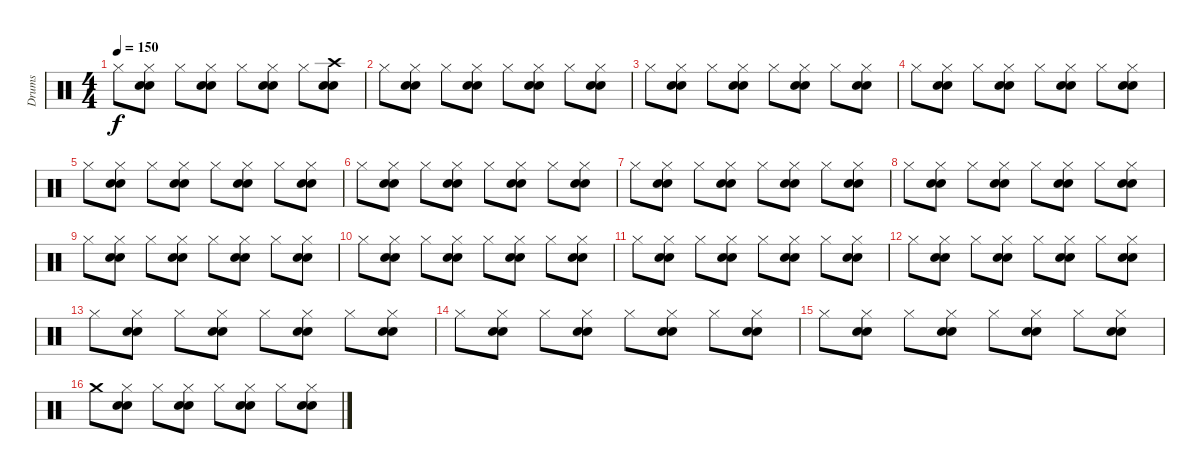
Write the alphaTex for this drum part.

\track ("Drums" "Drums") {instrument percussion}
\staff {score}
\articulation defaults
\ts (4 4)
\tempo 150
\clef neutral
\ks c "Hi-Hat (closed)".8{dy f}
("Hi-Hat (closed)" "Electric Snare (hit)" "Snare (hit) 2").8 "Hi-Hat (closed)".8 ("Hi-Hat (closed)" "Electric Snare (hit)" "Snare (hit) 2").8 "Hi-Hat (closed)".8 ("Hi-Hat (closed)" "Electric Snare (hit)" "Snare (hit) 2").8 "Hi-Hat (closed)".8 ("Crash high (hit)" "Electric Snare (hit)" "Snare (hit) 2").8 |
"Hi-Hat (closed)".8 ("Hi-Hat (closed)" "Electric Snare (hit)" "Snare (hit) 2").8 "Hi-Hat (closed)".8 ("Hi-Hat (closed)" "Electric Snare (hit)" "Snare (hit) 2").8 "Hi-Hat (closed)".8 ("Hi-Hat (closed)" "Electric Snare (hit)" "Snare (hit) 2").8 "Hi-Hat (closed)".8 ("Hi-Hat (closed)" "Electric Snare (hit)" "Snare (hit) 2").8 |
"Hi-Hat (closed)".8 ("Hi-Hat (closed)" "Electric Snare (hit)" "Snare (hit) 2").8 "Hi-Hat (closed)".8 ("Hi-Hat (closed)" "Electric Snare (hit)" "Snare (hit) 2").8 "Hi-Hat (closed)".8 ("Hi-Hat (closed)" "Electric Snare (hit)" "Snare (hit) 2").8 "Hi-Hat (closed)".8 ("Hi-Hat (closed)" "Electric Snare (hit)" "Snare (hit) 2").8 |
"Hi-Hat (closed)".8 ("Hi-Hat (closed)" "Electric Snare (hit)" "Snare (hit) 2").8 "Hi-Hat (closed)".8 ("Hi-Hat (closed)" "Electric Snare (hit)" "Snare (hit) 2").8 "Hi-Hat (closed)".8 ("Hi-Hat (closed)" "Electric Snare (hit)" "Snare (hit) 2").8 "Hi-Hat (closed)".8 ("Hi-Hat (closed)" "Electric Snare (hit)" "Snare (hit) 2").8 |
"Hi-Hat (closed)".8 ("Hi-Hat (closed)" "Electric Snare (hit)" "Snare (hit) 2").8 "Hi-Hat (closed)".8 ("Hi-Hat (closed)" "Electric Snare (hit)" "Snare (hit) 2").8 "Hi-Hat (closed)".8 ("Hi-Hat (closed)" "Electric Snare (hit)" "Snare (hit) 2").8 "Hi-Hat (closed)".8 ("Hi-Hat (closed)" "Electric Snare (hit)" "Snare (hit) 2").8 |
"Hi-Hat (closed)".8 ("Hi-Hat (closed)" "Electric Snare (hit)" "Snare (hit) 2").8 "Hi-Hat (closed)".8 ("Hi-Hat (closed)" "Electric Snare (hit)" "Snare (hit) 2").8 "Hi-Hat (closed)".8 ("Hi-Hat (closed)" "Electric Snare (hit)" "Snare (hit) 2").8 "Hi-Hat (closed)".8 ("Hi-Hat (closed)" "Electric Snare (hit)" "Snare (hit) 2").8 |
"Hi-Hat (closed)".8 ("Hi-Hat (closed)" "Electric Snare (hit)" "Snare (hit) 2").8 "Hi-Hat (closed)".8 ("Hi-Hat (closed)" "Electric Snare (hit)" "Snare (hit) 2").8 "Hi-Hat (closed)".8 ("Hi-Hat (closed)" "Electric Snare (hit)" "Snare (hit) 2").8 "Hi-Hat (closed)".8 ("Hi-Hat (closed)" "Electric Snare (hit)" "Snare (hit) 2").8 |
"Hi-Hat (closed)".8 ("Hi-Hat (closed)" "Electric Snare (hit)" "Snare (hit) 2").8 "Hi-Hat (closed)".8 ("Hi-Hat (closed)" "Electric Snare (hit)" "Snare (hit) 2").8 "Hi-Hat (closed)".8 ("Hi-Hat (closed)" "Electric Snare (hit)" "Snare (hit) 2").8 "Hi-Hat (closed)".8 ("Hi-Hat (closed)" "Electric Snare (hit)" "Snare (hit) 2").8 |
"Hi-Hat (closed)".8 ("Hi-Hat (closed)" "Electric Snare (hit)" "Snare (hit) 2").8 "Hi-Hat (closed)".8 ("Hi-Hat (closed)" "Electric Snare (hit)" "Snare (hit) 2").8 "Hi-Hat (closed)".8 ("Hi-Hat (closed)" "Electric Snare (hit)" "Snare (hit) 2").8 "Hi-Hat (closed)".8 ("Hi-Hat (closed)" "Electric Snare (hit)" "Snare (hit) 2").8 |
"Hi-Hat (closed)".8 ("Hi-Hat (closed)" "Electric Snare (hit)" "Snare (hit) 2").8 "Hi-Hat (closed)".8 ("Hi-Hat (closed)" "Electric Snare (hit)" "Snare (hit) 2").8 "Hi-Hat (closed)".8 ("Hi-Hat (closed)" "Electric Snare (hit)" "Snare (hit) 2").8 "Hi-Hat (closed)".8 ("Hi-Hat (closed)" "Electric Snare (hit)" "Snare (hit) 2").8 |
"Hi-Hat (closed)".8 ("Hi-Hat (closed)" "Electric Snare (hit)" "Snare (hit) 2").8 "Hi-Hat (closed)".8 ("Hi-Hat (closed)" "Electric Snare (hit)" "Snare (hit) 2").8 "Hi-Hat (closed)".8 ("Hi-Hat (closed)" "Electric Snare (hit)" "Snare (hit) 2").8 "Hi-Hat (closed)".8 ("Hi-Hat (closed)" "Electric Snare (hit)" "Snare (hit) 2").8 |
"Hi-Hat (closed)".8 ("Hi-Hat (closed)" "Electric Snare (hit)" "Snare (hit) 2").8 "Hi-Hat (closed)".8 ("Hi-Hat (closed)" "Electric Snare (hit)" "Snare (hit) 2").8 "Hi-Hat (closed)".8 ("Hi-Hat (closed)" "Electric Snare (hit)" "Snare (hit) 2").8 "Hi-Hat (closed)".8 ("Hi-Hat (closed)" "Electric Snare (hit)" "Snare (hit) 2").8 |
"Hi-Hat (closed)".8 ("Hi-Hat (closed)" "Electric Snare (hit)" "Snare (hit) 2").8 "Hi-Hat (closed)".8 ("Hi-Hat (closed)" "Electric Snare (hit)" "Snare (hit) 2").8 "Hi-Hat (closed)".8 ("Hi-Hat (closed)" "Electric Snare (hit)" "Snare (hit) 2").8 "Hi-Hat (closed)".8 ("Hi-Hat (closed)" "Electric Snare (hit)" "Snare (hit) 2").8 |
"Hi-Hat (closed)".8 ("Hi-Hat (closed)" "Electric Snare (hit)" "Snare (hit) 2").8 "Hi-Hat (closed)".8 ("Hi-Hat (closed)" "Electric Snare (hit)" "Snare (hit) 2").8 "Hi-Hat (closed)".8 ("Hi-Hat (closed)" "Electric Snare (hit)" "Snare (hit) 2").8 "Hi-Hat (closed)".8 ("Hi-Hat (closed)" "Electric Snare (hit)" "Snare (hit) 2").8 |
"Hi-Hat (closed)".8 ("Hi-Hat (closed)" "Electric Snare (hit)" "Snare (hit) 2").8 "Hi-Hat (closed)".8 ("Hi-Hat (closed)" "Electric Snare (hit)" "Snare (hit) 2").8 "Hi-Hat (closed)".8 ("Hi-Hat (closed)" "Electric Snare (hit)" "Snare (hit) 2").8 "Hi-Hat (closed)".8 ("Hi-Hat (closed)" "Electric Snare (hit)" "Snare (hit) 2").8 |
"Crash medium (hit)".8 ("Hi-Hat (closed)" "Electric Snare (hit)" "Snare (hit) 2").8 "Hi-Hat (closed)".8 ("Hi-Hat (closed)" "Electric Snare (hit)" "Snare (hit) 2").8 "Hi-Hat (closed)".8 ("Hi-Hat (closed)" "Electric Snare (hit)" "Snare (hit) 2").8 "Hi-Hat (closed)".8 ("Hi-Hat (closed)" "Electric Snare (hit)" "Snare (hit) 2").8
